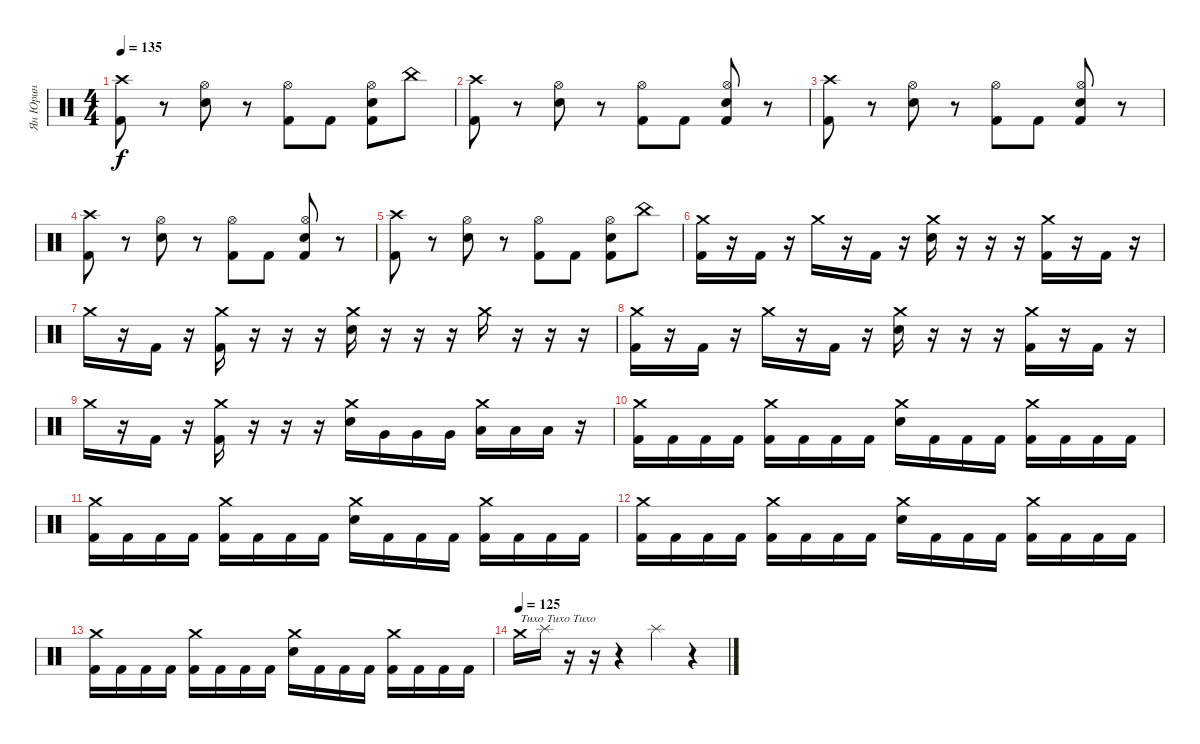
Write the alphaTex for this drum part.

\track ("Ян Юрин" "Ян Юрин") {instrument percussion}
\staff {score}
\articulation defaults
\ts (4 4)
\tempo 135
\clef neutral
\ks c
("Crash high (hit)" "Kick (hit) 2").8{dy f} r.8 ("Hi-Hat (open)" "Electric Snare (hit)").8 r.8 ("Hi-Hat (open)" "Kick (hit) 2").8 "Kick (hit) 2".8 ("Hi-Hat (open)" "Electric Snare (hit)" "Kick (hit) 2").8 "China (hit)".8 |
("Crash high (hit)" "Kick (hit) 2").8 r.8 ("Hi-Hat (open)" "Electric Snare (hit)").8 r.8 ("Hi-Hat (open)" "Kick (hit) 2").8 "Kick (hit) 2".8 ("Hi-Hat (open)" "Electric Snare (hit)" "Kick (hit) 2").8 r.8 |
("Crash high (hit)" "Kick (hit) 2").8 r.8 ("Hi-Hat (open)" "Electric Snare (hit)").8 r.8 ("Hi-Hat (open)" "Kick (hit) 2").8 "Kick (hit) 2".8 ("Hi-Hat (open)" "Electric Snare (hit)" "Kick (hit) 2").8 r.8 |
("Crash high (hit)" "Kick (hit) 2").8 r.8 ("Hi-Hat (open)" "Electric Snare (hit)").8 r.8 ("Hi-Hat (open)" "Kick (hit) 2").8 "Kick (hit) 2".8 ("Hi-Hat (open)" "Electric Snare (hit)" "Kick (hit) 2").8 r.8 |
("Crash high (hit)" "Kick (hit) 2").8 r.8 ("Hi-Hat (open)" "Electric Snare (hit)").8 r.8 ("Hi-Hat (open)" "Kick (hit) 2").8 "Kick (hit) 2".8 ("Hi-Hat (open)" "Electric Snare (hit)" "Kick (hit) 2").8 "China (hit)".8 |
("Crash medium (hit)" "Kick (hit) 2").16 r.16 "Kick (hit) 2".16 r.16 "Crash medium (hit)".16 r.16 "Kick (hit) 2".16 r.16 ("Crash medium (hit)" "Electric Snare (hit)").16 r.16 r.16 r.16 ("Crash medium (hit)" "Kick (hit) 2").16 r.16 "Kick (hit) 2".16 r.16 |
"Crash medium (hit)".16 r.16 "Kick (hit) 2".16 r.16 ("Crash medium (hit)" "Kick (hit) 2").16 r.16 r.16 r.16 ("Crash medium (hit)" "Electric Snare (hit)").16 r.16 r.16 r.16 "Crash medium (hit)".16 r.16 r.16 r.16 |
("Crash medium (hit)" "Kick (hit) 2").16 r.16 "Kick (hit) 2".16 r.16 "Crash medium (hit)".16 r.16 "Kick (hit) 2".16 r.16 ("Crash medium (hit)" "Electric Snare (hit)").16 r.16 r.16 r.16 ("Crash medium (hit)" "Kick (hit) 2").16 r.16 "Kick (hit) 2".16 r.16 |
"Crash medium (hit)".16 r.16 "Kick (hit) 2".16 r.16 ("Crash medium (hit)" "Kick (hit) 2").16 r.16 r.16 r.16 ("Crash medium (hit)" "Electric Snare (hit)").16 "Very Low Tom (hit)".16 "Very Low Tom (hit)".16 "Very Low Tom (hit)".16 ("Crash medium (hit)" "Low Floor Tom (hit)").16 "Low Floor Tom (hit)".16 "Low Floor Tom (hit)".16 r.16 |
("Crash medium (hit)" "Kick (hit) 2").16 "Kick (hit) 2".16 "Kick (hit) 2".16 "Kick (hit) 2".16 ("Crash medium (hit)" "Kick (hit) 2").16 "Kick (hit) 2".16 "Kick (hit) 2".16 "Kick (hit) 2".16 ("Crash medium (hit)" "Electric Snare (hit)").16 "Kick (hit) 2".16 "Kick (hit) 2".16 "Kick (hit) 2".16 ("Crash medium (hit)" "Kick (hit) 2").16 "Kick (hit) 2".16 "Kick (hit) 2".16 "Kick (hit) 2".16 |
("Crash medium (hit)" "Kick (hit) 2").16 "Kick (hit) 2".16 "Kick (hit) 2".16 "Kick (hit) 2".16 ("Crash medium (hit)" "Kick (hit) 2").16 "Kick (hit) 2".16 "Kick (hit) 2".16 "Kick (hit) 2".16 ("Crash medium (hit)" "Electric Snare (hit)").16 "Kick (hit) 2".16 "Kick (hit) 2".16 "Kick (hit) 2".16 ("Crash medium (hit)" "Kick (hit) 2").16 "Kick (hit) 2".16 "Kick (hit) 2".16 "Kick (hit) 2".16 |
("Crash medium (hit)" "Kick (hit) 2").16 "Kick (hit) 2".16 "Kick (hit) 2".16 "Kick (hit) 2".16 ("Crash medium (hit)" "Kick (hit) 2").16 "Kick (hit) 2".16 "Kick (hit) 2".16 "Kick (hit) 2".16 ("Crash medium (hit)" "Electric Snare (hit)").16 "Kick (hit) 2".16 "Kick (hit) 2".16 "Kick (hit) 2".16 ("Crash medium (hit)" "Kick (hit) 2").16 "Kick (hit) 2".16 "Kick (hit) 2".16 "Kick (hit) 2".16 |
("Crash medium (hit)" "Kick (hit) 2").16 "Kick (hit) 2".16 "Kick (hit) 2".16 "Kick (hit) 2".16 ("Crash medium (hit)" "Kick (hit) 2").16 "Kick (hit) 2".16 "Kick (hit) 2".16 "Kick (hit) 2".16 ("Crash medium (hit)" "Electric Snare (hit)").16 "Kick (hit) 2".16 "Kick (hit) 2".16 "Kick (hit) 2".16 ("Crash medium (hit)" "Kick (hit) 2").16 "Kick (hit) 2".16 "Kick (hit) 2".16 "Kick (hit) 2".16 |
\tempo (125)
"Crash medium (hit)".16{txt "Тихо Тихо Тихо"} "Splash (hit)".16 r.16 r.16 r.4 "Splash (hit)".4 r.4
